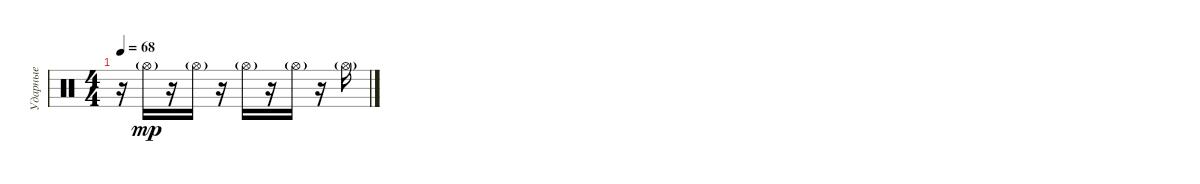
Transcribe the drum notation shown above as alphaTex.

\track ("Ударные" "Ударные") {instrument percussion}
\staff {score}
\articulation defaults
\ts (4 4)
\tempo 68
\clef neutral
\ks c
r.16{dy mp} "Hi-Hat (open)"{g}.16 r.16 "Hi-Hat (open)"{g}.16 r.16 "Hi-Hat (open)"{g}.16 r.16 "Hi-Hat (open)"{g}.16 r.16 "Hi-Hat (open)"{g}.16
